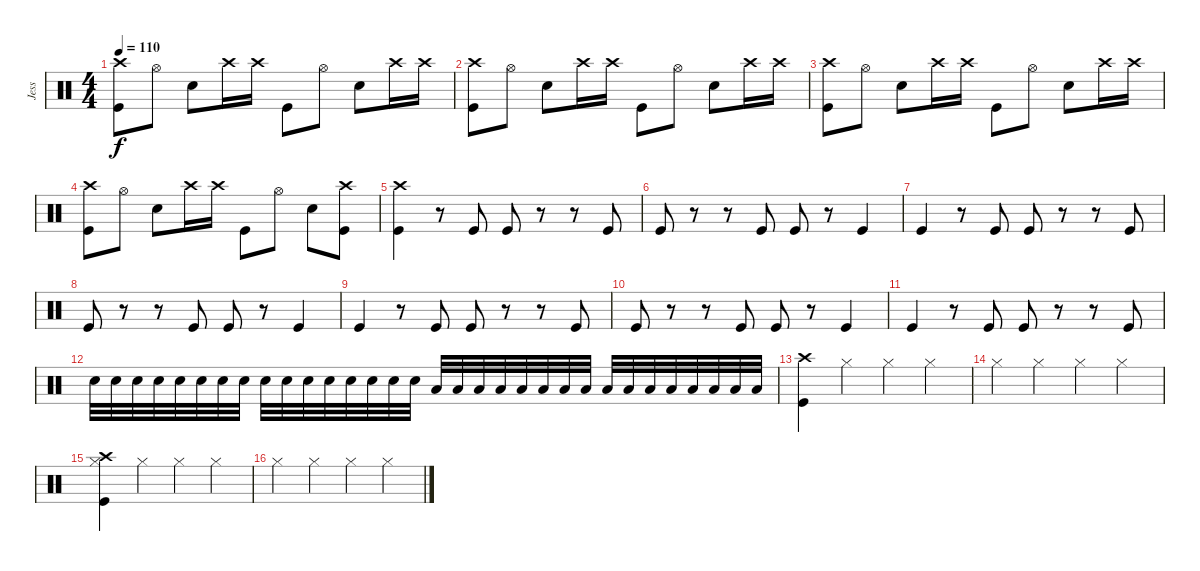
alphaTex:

\track ("Jess" "Jess") {instrument percussion}
\staff {score}
\articulation defaults
\ts (4 4)
\tempo 110
\clef neutral
\ks c
("Crash high (hit)" "Kick (hit)").8{dy f} "Hi-Hat (open)".8 "Electric Snare (hit)".8 "Crash high (hit)".16 "Crash high (hit)".16 "Kick (hit)".8 "Hi-Hat (open)".8 "Electric Snare (hit)".8 "Crash high (hit)".16 "Crash high (hit)".16 |
("Crash high (hit)" "Kick (hit)").8 "Hi-Hat (open)".8 "Electric Snare (hit)".8 "Crash high (hit)".16 "Crash high (hit)".16 "Kick (hit)".8 "Hi-Hat (open)".8 "Electric Snare (hit)".8 "Crash high (hit)".16 "Crash high (hit)".16 |
("Crash high (hit)" "Kick (hit)").8 "Hi-Hat (open)".8 "Electric Snare (hit)".8 "Crash high (hit)".16 "Crash high (hit)".16 "Kick (hit)".8 "Hi-Hat (open)".8 "Electric Snare (hit)".8 "Crash high (hit)".16 "Crash high (hit)".16 |
("Crash high (hit)" "Kick (hit)").8 "Hi-Hat (open)".8 "Electric Snare (hit)".8 "Crash high (hit)".16 "Crash high (hit)".16 "Kick (hit)".8 "Hi-Hat (open)".8 "Electric Snare (hit)".8 ("Crash high (hit)" "Kick (hit)").8 |
("Crash high (hit)" "Kick (hit)").4 r.8 "Kick (hit)".8 "Kick (hit)".8 r.8 r.8 "Kick (hit)".8 |
"Kick (hit)".8 r.8 r.8 "Kick (hit)".8 "Kick (hit)".8 r.8 "Kick (hit)".4 |
"Kick (hit)".4 r.8 "Kick (hit)".8 "Kick (hit)".8 r.8 r.8 "Kick (hit)".8 |
"Kick (hit)".8 r.8 r.8 "Kick (hit)".8 "Kick (hit)".8 r.8 "Kick (hit)".4 |
"Kick (hit)".4 r.8 "Kick (hit)".8 "Kick (hit)".8 r.8 r.8 "Kick (hit)".8 |
"Kick (hit)".8 r.8 r.8 "Kick (hit)".8 "Kick (hit)".8 r.8 "Kick (hit)".4 |
"Kick (hit)".4 r.8 "Kick (hit)".8 "Kick (hit)".8 r.8 r.8 "Kick (hit)".8 |
"Electric Snare (hit)".32 "Electric Snare (hit)".32 "Electric Snare (hit)".32 "Electric Snare (hit)".32 "Electric Snare (hit)".32 "Electric Snare (hit)".32 "Electric Snare (hit)".32 "Electric Snare (hit)".32 "Electric Snare (hit)".32 "Electric Snare (hit)".32 "Electric Snare (hit)".32 "Electric Snare (hit)".32 "Electric Snare (hit)".32 "Electric Snare (hit)".32 "Electric Snare (hit)".32 "Electric Snare (hit)".32 "Low Tom (hit)".32 "Low Tom (hit)".32 "Low Tom (hit)".32 "Low Tom (hit)".32 "Low Tom (hit)".32 "Low Tom (hit)".32 "Low Tom (hit)".32 "Low Tom (hit)".32 "Low Floor Tom (hit)".32 "Low Floor Tom (hit)".32 "Low Floor Tom (hit)".32 "Low Floor Tom (hit)".32 "Low Floor Tom (hit)".32 "Low Floor Tom (hit)".32 "Low Floor Tom (hit)".32 "Low Floor Tom (hit)".32 |
("Crash high (hit)" "Kick (hit)").4 "Hi-Hat (closed)".4 "Hi-Hat (closed)".4 "Hi-Hat (closed)".4 |
"Hi-Hat (closed)".4 "Hi-Hat (closed)".4 "Hi-Hat (closed)".4 "Hi-Hat (closed)".4 |
("Crash high (hit)" "Hi-Hat (closed)" "Kick (hit)").4 "Hi-Hat (closed)".4 "Hi-Hat (closed)".4 "Hi-Hat (closed)".4 |
"Hi-Hat (closed)".4 "Hi-Hat (closed)".4 "Hi-Hat (closed)".4 "Hi-Hat (closed)".4
